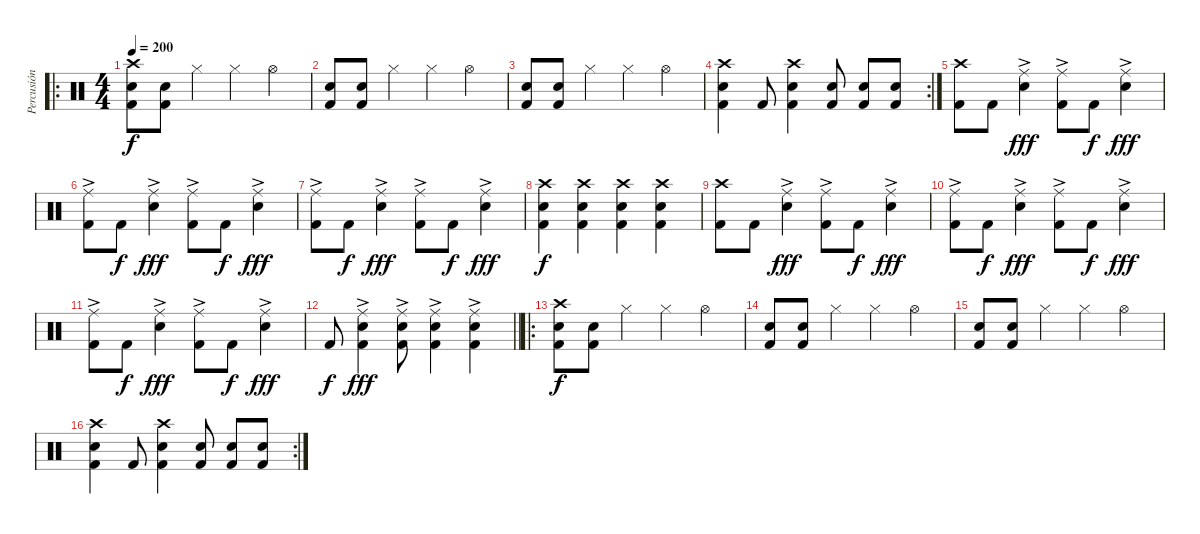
\track ("Percusión" "Percusión") {instrument percussion}
\staff {score}
\articulation defaults
\ro
\ts (4 4)
\tempo 200
\clef neutral
\ks c
("Crash high (hit)" "Snare (hit) 2" "Kick (hit) 2").8{dy f} ("Snare (hit) 2" "Kick (hit) 2").8 "Hi-Hat (closed)".4 "Hi-Hat (closed)".4 "Hi-Hat (open)".4 |
("Snare (hit) 2" "Kick (hit) 2").8 ("Snare (hit) 2" "Kick (hit) 2").8 "Hi-Hat (closed)".4 "Hi-Hat (closed)".4 "Hi-Hat (open)".4 |
("Snare (hit) 2" "Kick (hit) 2").8 ("Snare (hit) 2" "Kick (hit) 2").8 "Hi-Hat (closed)".4 "Hi-Hat (closed)".4 "Hi-Hat (open)".4 |
\rc 2
("Crash high (hit)" "Snare (hit) 2" "Kick (hit) 2").4 "Kick (hit) 2".8 ("Crash high (hit)" "Snare (hit) 2" "Kick (hit) 2").4 ("Snare (hit) 2" "Kick (hit) 2").8 ("Snare (hit) 2" "Kick (hit) 2").8 ("Snare (hit) 2" "Kick (hit) 2").8 |
("Crash high (hit)" "Kick (hit) 2").8 "Kick (hit) 2".8 ("Ride (middle)"{ac} "Snare (hit) 2").4{dy fff} ("Ride (middle)"{ac} "Kick (hit) 2").8 "Kick (hit) 2".8{dy f} ("Ride (middle)"{ac} "Snare (hit) 2").4{dy fff} |
("Ride (middle)"{ac} "Kick (hit) 2").8 "Kick (hit) 2".8{dy f} ("Ride (middle)"{ac} "Snare (hit) 2").4{dy fff} ("Ride (middle)"{ac} "Kick (hit) 2").8 "Kick (hit) 2".8{dy f} ("Ride (middle)"{ac} "Snare (hit) 2").4{dy fff} |
("Ride (middle)"{ac} "Kick (hit) 2").8 "Kick (hit) 2".8{dy f} ("Ride (middle)"{ac} "Snare (hit) 2").4{dy fff} ("Ride (middle)"{ac} "Kick (hit) 2").8 "Kick (hit) 2".8{dy f} ("Ride (middle)"{ac} "Snare (hit) 2").4{dy fff} |
("Crash high (hit)" "Snare (hit) 2" "Kick (hit) 2").4{dy f} ("Crash high (hit)" "Snare (hit) 2" "Kick (hit) 2").4 ("Crash high (hit)" "Snare (hit) 2" "Kick (hit) 2").4 ("Crash high (hit)" "Snare (hit) 2" "Kick (hit) 2").4 |
("Crash high (hit)" "Kick (hit) 2").8 "Kick (hit) 2".8 ("Ride (middle)"{ac} "Snare (hit) 2").4{dy fff} ("Ride (middle)"{ac} "Kick (hit) 2").8 "Kick (hit) 2".8{dy f} ("Ride (middle)"{ac} "Snare (hit) 2").4{dy fff} |
("Ride (middle)"{ac} "Kick (hit) 2").8 "Kick (hit) 2".8{dy f} ("Ride (middle)"{ac} "Snare (hit) 2").4{dy fff} ("Ride (middle)"{ac} "Kick (hit) 2").8 "Kick (hit) 2".8{dy f} ("Ride (middle)"{ac} "Snare (hit) 2").4{dy fff} |
("Ride (middle)"{ac} "Kick (hit) 2").8 "Kick (hit) 2".8{dy f} ("Ride (middle)"{ac} "Snare (hit) 2").4{dy fff} ("Ride (middle)"{ac} "Kick (hit) 2").8 "Kick (hit) 2".8{dy f} ("Ride (middle)"{ac} "Snare (hit) 2").4{dy fff} |
\barLineRight lightlight "Kick (hit) 2".8{dy f}
("Ride (middle)"{ac} "Snare (hit) 2" "Kick (hit) 2").4{dy fff} ("Ride (middle)"{ac} "Snare (hit) 2" "Kick (hit) 2").8 ("Ride (middle)"{ac} "Snare (hit) 2" "Kick (hit) 2").4 ("Ride (middle)"{ac} "Snare (hit) 2" "Kick (hit) 2").4 |
\ro
("Crash high (hit)" "Snare (hit) 2" "Kick (hit) 2").8{dy f} ("Snare (hit) 2" "Kick (hit) 2").8 "Hi-Hat (closed)".4 "Hi-Hat (closed)".4 "Hi-Hat (open)".4 |
("Snare (hit) 2" "Kick (hit) 2").8 ("Snare (hit) 2" "Kick (hit) 2").8 "Hi-Hat (closed)".4 "Hi-Hat (closed)".4 "Hi-Hat (open)".4 |
("Snare (hit) 2" "Kick (hit) 2").8 ("Snare (hit) 2" "Kick (hit) 2").8 "Hi-Hat (closed)".4 "Hi-Hat (closed)".4 "Hi-Hat (open)".4 |
\rc 2
("Crash high (hit)" "Snare (hit) 2" "Kick (hit) 2").4 "Kick (hit) 2".8 ("Crash high (hit)" "Snare (hit) 2" "Kick (hit) 2").4 ("Snare (hit) 2" "Kick (hit) 2").8 ("Snare (hit) 2" "Kick (hit) 2").8 ("Snare (hit) 2" "Kick (hit) 2").8
